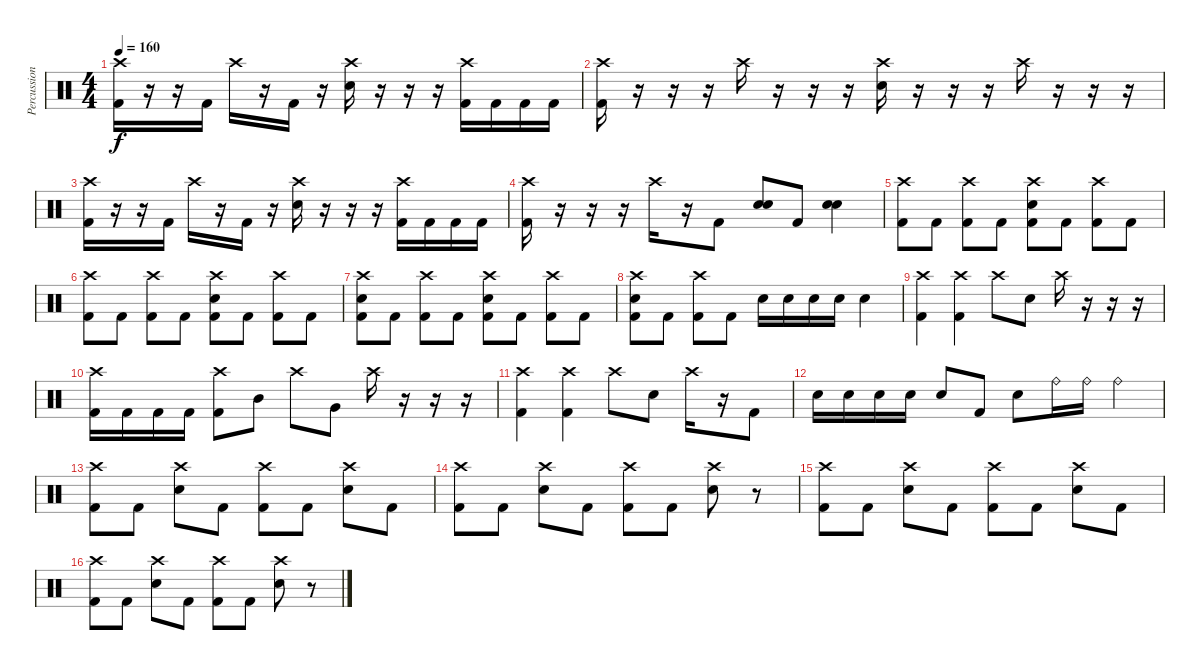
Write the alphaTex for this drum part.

\track ("Percussion" "Percussion") {instrument percussion}
\staff {score}
\articulation defaults
\ts (4 4)
\tempo 160
\clef neutral
\ks c
("Crash high (hit)" "Kick (hit) 2").16{dy f} r.16 r.16 "Kick (hit) 2".16 "Crash high (hit)".16 r.16 "Kick (hit) 2".16 r.16 ("Crash high (hit)" "Snare (hit) 2").16 r.16 r.16 r.16 ("Crash high (hit)" "Kick (hit) 2").16 "Kick (hit) 2".16 "Kick (hit) 2".16 "Kick (hit) 2".16 |
("Crash high (hit)" "Kick (hit) 2").16 r.16 r.16 r.16 "Crash high (hit)".16 r.16 r.16 r.16 ("Crash high (hit)" "Snare (hit) 2").16 r.16 r.16 r.16 "Crash high (hit)".16 r.16 r.16 r.16 |
("Crash high (hit)" "Kick (hit) 2").16 r.16 r.16 "Kick (hit) 2".16 "Crash high (hit)".16 r.16 "Kick (hit) 2".16 r.16 ("Crash high (hit)" "Snare (hit) 2").16 r.16 r.16 r.16 ("Crash high (hit)" "Kick (hit) 2").16 "Kick (hit) 2".16 "Kick (hit) 2".16 "Kick (hit) 2".16 |
("Crash high (hit)" "Kick (hit) 2").16 r.16 r.16 r.16 "Crash high (hit)".16 r.16 "Kick (hit) 2".8 ("Snare (hit) 2" "Snare (hit) 2").8{bd 240} "Kick (hit) 2".8 ("Snare (hit) 2" "Snare (hit) 2").4{bd 240} |
("Crash high (hit)" "Kick (hit) 2").8 "Kick (hit) 2".8 ("Crash high (hit)" "Kick (hit) 2").8 "Kick (hit) 2".8 ("Crash high (hit)" "Snare (hit) 2" "Kick (hit) 2").8 "Kick (hit) 2".8 ("Crash high (hit)" "Kick (hit) 2").8 "Kick (hit) 2".8 |
("Crash high (hit)" "Kick (hit) 2").8 "Kick (hit) 2".8 ("Crash high (hit)" "Kick (hit) 2").8 "Kick (hit) 2".8 ("Crash high (hit)" "Snare (hit) 2" "Kick (hit) 2").8 "Kick (hit) 2".8 ("Crash high (hit)" "Kick (hit) 2").8 "Kick (hit) 2".8 |
("Crash high (hit)" "Snare (hit) 2" "Kick (hit) 2").8 "Kick (hit) 2".8 ("Crash high (hit)" "Kick (hit) 2").8 "Kick (hit) 2".8 ("Crash high (hit)" "Snare (hit) 2" "Kick (hit) 2").8 "Kick (hit) 2".8 ("Crash high (hit)" "Kick (hit) 2").8 "Kick (hit) 2".8 |
("Crash high (hit)" "Snare (hit) 2" "Kick (hit) 2").8 "Kick (hit) 2".8 ("Crash high (hit)" "Kick (hit) 2").8 "Kick (hit) 2".8 "Snare (hit) 2".16 "Snare (hit) 2".16 "Snare (hit) 2".16 "Snare (hit) 2".16 "Snare (hit) 2".4 |
("Crash high (hit)" "Kick (hit) 2").4 ("Crash high (hit)" "Kick (hit) 2").4 "Crash high (hit)".8 "Snare (hit) 2".8 "Crash high (hit)".16 r.16 r.16 r.16 |
("Crash high (hit)" "Kick (hit) 2").16 "Kick (hit) 2".16 "Kick (hit) 2".16 "Kick (hit) 2".16 ("Crash high (hit)" "Kick (hit) 2").8 "Mid Tom (hit)".8 "Crash high (hit)".8 "Very Low Tom (hit)".8 "Crash high (hit)".16 r.16 r.16 r.16 |
("Crash high (hit)" "Kick (hit) 2").4 ("Crash high (hit)" "Kick (hit) 2").4 "Crash high (hit)".8 "Snare (hit) 2".8 "Crash high (hit)".16 r.16 "Kick (hit) 2".8 |
"Snare (hit) 2".16 "Snare (hit) 2".16 "Snare (hit) 2".16 "Snare (hit) 2".16 "Snare (hit) 2".8 "Kick (hit) 2".8 "Snare (hit) 2".8 "Ride (bell)".16 "Ride (bell)".16 "Ride (bell)".4 |
("Crash high (hit)" "Kick (hit) 2").8 "Kick (hit) 2".8 ("Crash high (hit)" "Snare (hit) 2").8 "Kick (hit) 2".8 ("Crash high (hit)" "Kick (hit) 2").8 "Kick (hit) 2".8 ("Crash high (hit)" "Snare (hit) 2").8 "Kick (hit) 2".8 |
("Crash high (hit)" "Kick (hit) 2").8 "Kick (hit) 2".8 ("Crash high (hit)" "Snare (hit) 2").8 "Kick (hit) 2".8 ("Crash high (hit)" "Kick (hit) 2").8 "Kick (hit) 2".8 ("Crash high (hit)" "Snare (hit) 2").8 r.8 |
("Crash high (hit)" "Kick (hit) 2").8 "Kick (hit) 2".8 ("Crash high (hit)" "Snare (hit) 2").8 "Kick (hit) 2".8 ("Crash high (hit)" "Kick (hit) 2").8 "Kick (hit) 2".8 ("Crash high (hit)" "Snare (hit) 2").8 "Kick (hit) 2".8 |
("Crash high (hit)" "Kick (hit) 2").8 "Kick (hit) 2".8 ("Crash high (hit)" "Snare (hit) 2").8 "Kick (hit) 2".8 ("Crash high (hit)" "Kick (hit) 2").8 "Kick (hit) 2".8 ("Crash high (hit)" "Snare (hit) 2").8 r.8
